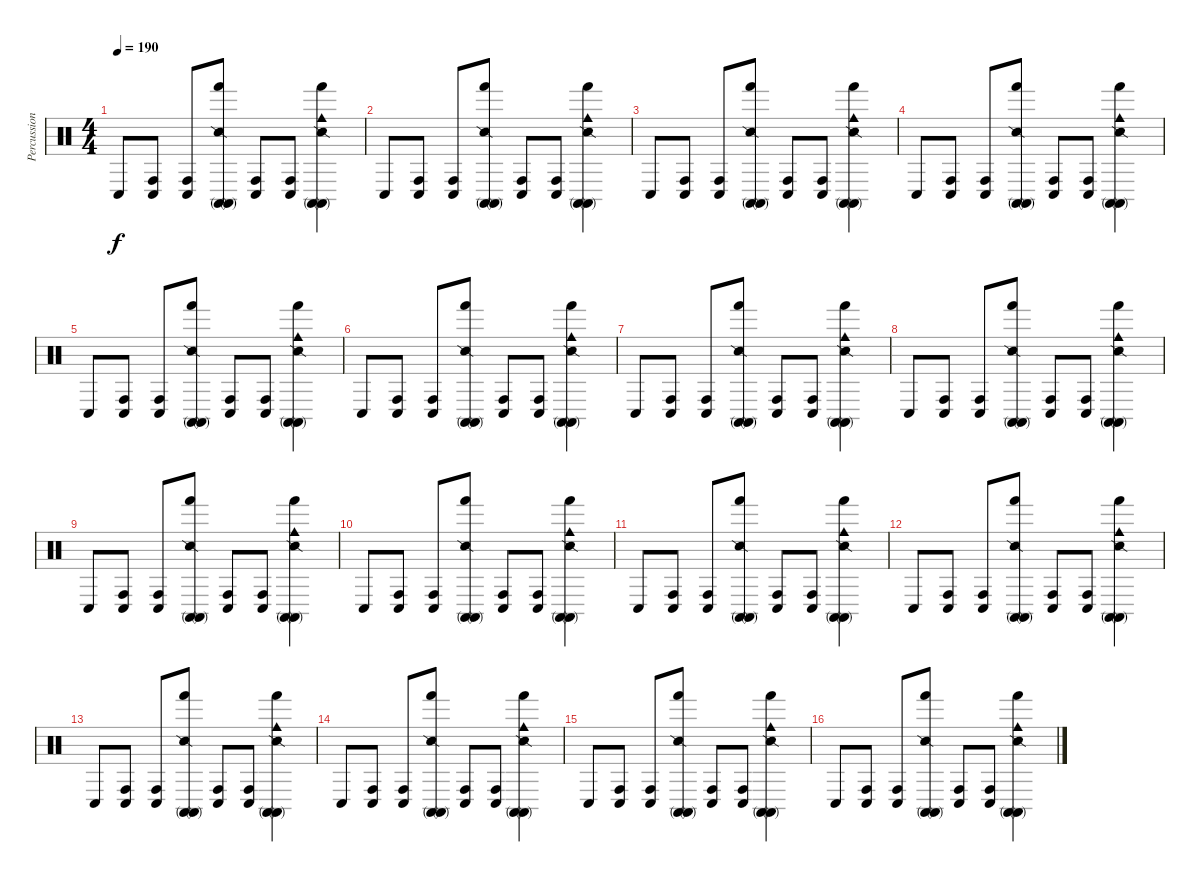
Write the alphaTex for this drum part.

\track ("Percussion" "Percussion") {instrument percussion}
\staff {score}
\articulation defaults
\ts (4 4)
\tempo 190
\clef neutral
\ks c "Conga low (hit)".8{dy f}
("Conga high (hit)" "Conga low (hit)").8 ("Conga high (hit)" "Conga low (hit)").8 ("Snare (side stick) 2" "Hand (hit)" "Conga high (mute)" "Conga high (mute)").8 ("Conga high (hit)" "Conga low (hit)").8 ("Conga high (hit)" "Conga low (hit)").8 ("Snare (side stick) 2" "Hand (hit)" "Cowbell medium (hit)" "Conga high (mute)" "Conga high (mute)").4 |
"Conga low (hit)".8 ("Conga high (hit)" "Conga low (hit)").8 ("Conga high (hit)" "Conga low (hit)").8 ("Snare (side stick) 2" "Hand (hit)" "Conga high (mute)" "Conga high (mute)").8 ("Conga high (hit)" "Conga low (hit)").8 ("Conga high (hit)" "Conga low (hit)").8 ("Snare (side stick) 2" "Hand (hit)" "Cowbell medium (hit)" "Conga high (mute)" "Conga high (mute)").4 |
"Conga low (hit)".8 ("Conga high (hit)" "Conga low (hit)").8 ("Conga high (hit)" "Conga low (hit)").8 ("Snare (side stick) 2" "Hand (hit)" "Conga high (mute)" "Conga high (mute)").8 ("Conga high (hit)" "Conga low (hit)").8 ("Conga high (hit)" "Conga low (hit)").8 ("Snare (side stick) 2" "Hand (hit)" "Cowbell medium (hit)" "Conga high (mute)" "Conga high (mute)").4 |
"Conga low (hit)".8 ("Conga high (hit)" "Conga low (hit)").8 ("Conga high (hit)" "Conga low (hit)").8 ("Snare (side stick) 2" "Hand (hit)" "Conga high (mute)" "Conga high (mute)").8 ("Conga high (hit)" "Conga low (hit)").8 ("Conga high (hit)" "Conga low (hit)").8 ("Snare (side stick) 2" "Hand (hit)" "Cowbell medium (hit)" "Conga high (mute)" "Conga high (mute)").4 |
"Conga low (hit)".8 ("Conga high (hit)" "Conga low (hit)").8 ("Conga high (hit)" "Conga low (hit)").8 ("Snare (side stick) 2" "Hand (hit)" "Conga high (mute)" "Conga high (mute)").8 ("Conga high (hit)" "Conga low (hit)").8 ("Conga high (hit)" "Conga low (hit)").8 ("Snare (side stick) 2" "Hand (hit)" "Cowbell medium (hit)" "Conga high (mute)" "Conga high (mute)").4 |
"Conga low (hit)".8 ("Conga high (hit)" "Conga low (hit)").8 ("Conga high (hit)" "Conga low (hit)").8 ("Snare (side stick) 2" "Hand (hit)" "Conga high (mute)" "Conga high (mute)").8 ("Conga high (hit)" "Conga low (hit)").8 ("Conga high (hit)" "Conga low (hit)").8 ("Snare (side stick) 2" "Hand (hit)" "Cowbell medium (hit)" "Conga high (mute)" "Conga high (mute)").4 |
"Conga low (hit)".8 ("Conga high (hit)" "Conga low (hit)").8 ("Conga high (hit)" "Conga low (hit)").8 ("Snare (side stick) 2" "Hand (hit)" "Conga high (mute)" "Conga high (mute)").8 ("Conga high (hit)" "Conga low (hit)").8 ("Conga high (hit)" "Conga low (hit)").8 ("Snare (side stick) 2" "Hand (hit)" "Cowbell medium (hit)" "Conga high (mute)" "Conga high (mute)").4 |
"Conga low (hit)".8 ("Conga high (hit)" "Conga low (hit)").8 ("Conga high (hit)" "Conga low (hit)").8 ("Snare (side stick) 2" "Hand (hit)" "Conga high (mute)" "Conga high (mute)").8 ("Conga high (hit)" "Conga low (hit)").8 ("Conga high (hit)" "Conga low (hit)").8 ("Snare (side stick) 2" "Hand (hit)" "Cowbell medium (hit)" "Conga high (mute)" "Conga high (mute)").4 |
"Conga low (hit)".8 ("Conga high (hit)" "Conga low (hit)").8 ("Conga high (hit)" "Conga low (hit)").8 ("Snare (side stick) 2" "Hand (hit)" "Conga high (mute)" "Conga high (mute)").8 ("Conga high (hit)" "Conga low (hit)").8 ("Conga high (hit)" "Conga low (hit)").8 ("Snare (side stick) 2" "Hand (hit)" "Cowbell medium (hit)" "Conga high (mute)" "Conga high (mute)").4 |
"Conga low (hit)".8 ("Conga high (hit)" "Conga low (hit)").8 ("Conga high (hit)" "Conga low (hit)").8 ("Snare (side stick) 2" "Hand (hit)" "Conga high (mute)" "Conga high (mute)").8 ("Conga high (hit)" "Conga low (hit)").8 ("Conga high (hit)" "Conga low (hit)").8 ("Snare (side stick) 2" "Hand (hit)" "Cowbell medium (hit)" "Conga high (mute)" "Conga high (mute)").4 |
"Conga low (hit)".8 ("Conga high (hit)" "Conga low (hit)").8 ("Conga high (hit)" "Conga low (hit)").8 ("Snare (side stick) 2" "Hand (hit)" "Conga high (mute)" "Conga high (mute)").8 ("Conga high (hit)" "Conga low (hit)").8 ("Conga high (hit)" "Conga low (hit)").8 ("Snare (side stick) 2" "Hand (hit)" "Cowbell medium (hit)" "Conga high (mute)" "Conga high (mute)").4 |
"Conga low (hit)".8 ("Conga high (hit)" "Conga low (hit)").8 ("Conga high (hit)" "Conga low (hit)").8 ("Snare (side stick) 2" "Hand (hit)" "Conga high (mute)" "Conga high (mute)").8 ("Conga high (hit)" "Conga low (hit)").8 ("Conga high (hit)" "Conga low (hit)").8 ("Snare (side stick) 2" "Hand (hit)" "Cowbell medium (hit)" "Conga high (mute)" "Conga high (mute)").4 |
"Conga low (hit)".8 ("Conga high (hit)" "Conga low (hit)").8 ("Conga high (hit)" "Conga low (hit)").8 ("Snare (side stick) 2" "Hand (hit)" "Conga high (mute)" "Conga high (mute)").8 ("Conga high (hit)" "Conga low (hit)").8 ("Conga high (hit)" "Conga low (hit)").8 ("Snare (side stick) 2" "Hand (hit)" "Cowbell medium (hit)" "Conga high (mute)" "Conga high (mute)").4 |
"Conga low (hit)".8 ("Conga high (hit)" "Conga low (hit)").8 ("Conga high (hit)" "Conga low (hit)").8 ("Snare (side stick) 2" "Hand (hit)" "Conga high (mute)" "Conga high (mute)").8 ("Conga high (hit)" "Conga low (hit)").8 ("Conga high (hit)" "Conga low (hit)").8 ("Snare (side stick) 2" "Hand (hit)" "Cowbell medium (hit)" "Conga high (mute)" "Conga high (mute)").4 |
"Conga low (hit)".8 ("Conga high (hit)" "Conga low (hit)").8 ("Conga high (hit)" "Conga low (hit)").8 ("Snare (side stick) 2" "Hand (hit)" "Conga high (mute)" "Conga high (mute)").8 ("Conga high (hit)" "Conga low (hit)").8 ("Conga high (hit)" "Conga low (hit)").8 ("Snare (side stick) 2" "Hand (hit)" "Cowbell medium (hit)" "Conga high (mute)" "Conga high (mute)").4 |
"Conga low (hit)".8 ("Conga high (hit)" "Conga low (hit)").8 ("Conga high (hit)" "Conga low (hit)").8 ("Snare (side stick) 2" "Hand (hit)" "Conga high (mute)" "Conga high (mute)").8 ("Conga high (hit)" "Conga low (hit)").8 ("Conga high (hit)" "Conga low (hit)").8 ("Snare (side stick) 2" "Hand (hit)" "Cowbell medium (hit)" "Conga high (mute)" "Conga high (mute)").4
